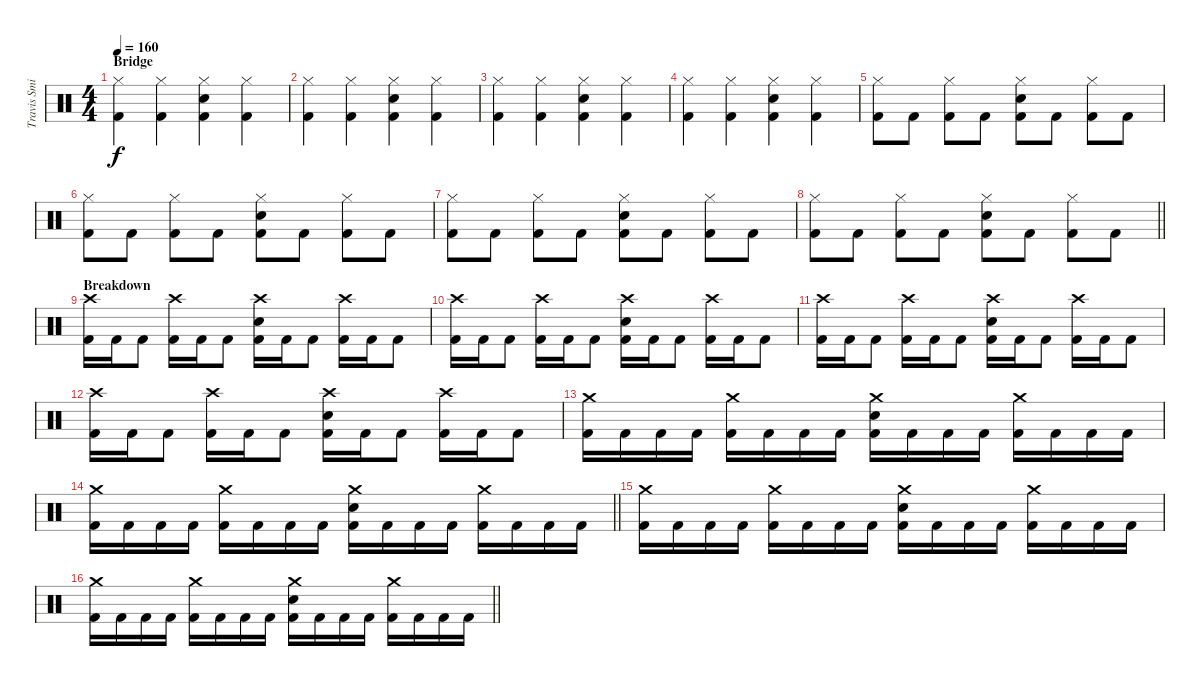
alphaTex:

\track ("Travis Smith" "Travis Smi") {instrument percussion}
\staff {score}
\articulation defaults
\ts (4 4)
\section ("" "Bridge")
\tempo 160
\clef neutral
\ks c
("Hi-Hat (closed)" "Kick (hit) 2").4{dy f volume 10} ("Hi-Hat (closed)" "Kick (hit) 2").4 ("Hi-Hat (closed)" "Electric Snare (hit)" "Kick (hit) 2").4 ("Hi-Hat (closed)" "Kick (hit) 2").4 |
("Hi-Hat (closed)" "Kick (hit) 2").4 ("Hi-Hat (closed)" "Kick (hit) 2").4 ("Hi-Hat (closed)" "Electric Snare (hit)" "Kick (hit) 2").4 ("Hi-Hat (closed)" "Kick (hit) 2").4 |
("Hi-Hat (closed)" "Kick (hit) 2").4 ("Hi-Hat (closed)" "Kick (hit) 2").4 ("Hi-Hat (closed)" "Electric Snare (hit)" "Kick (hit) 2").4 ("Hi-Hat (closed)" "Kick (hit) 2").4 |
("Hi-Hat (closed)" "Kick (hit) 2").4 ("Hi-Hat (closed)" "Kick (hit) 2").4 ("Hi-Hat (closed)" "Electric Snare (hit)" "Kick (hit) 2").4 ("Hi-Hat (closed)" "Kick (hit) 2").4 |
("Hi-Hat (closed)" "Kick (hit) 2").8 "Kick (hit) 2".8 ("Hi-Hat (closed)" "Kick (hit) 2").8 "Kick (hit) 2".8 ("Hi-Hat (closed)" "Electric Snare (hit)" "Kick (hit) 2").8 "Kick (hit) 2".8 ("Hi-Hat (closed)" "Kick (hit) 2").8 "Kick (hit) 2".8 |
("Hi-Hat (closed)" "Kick (hit) 2").8 "Kick (hit) 2".8 ("Hi-Hat (closed)" "Kick (hit) 2").8 "Kick (hit) 2".8 ("Hi-Hat (closed)" "Electric Snare (hit)" "Kick (hit) 2").8 "Kick (hit) 2".8 ("Hi-Hat (closed)" "Kick (hit) 2").8 "Kick (hit) 2".8 |
("Hi-Hat (closed)" "Kick (hit) 2").8 "Kick (hit) 2".8 ("Hi-Hat (closed)" "Kick (hit) 2").8 "Kick (hit) 2".8 ("Hi-Hat (closed)" "Electric Snare (hit)" "Kick (hit) 2").8 "Kick (hit) 2".8 ("Hi-Hat (closed)" "Kick (hit) 2").8 "Kick (hit) 2".8 |
\barLineRight lightlight
("Hi-Hat (closed)" "Kick (hit) 2").8 "Kick (hit) 2".8 ("Hi-Hat (closed)" "Kick (hit) 2").8 "Kick (hit) 2".8 ("Hi-Hat (closed)" "Electric Snare (hit)" "Kick (hit) 2").8 "Kick (hit) 2".8 ("Hi-Hat (closed)" "Kick (hit) 2").8 "Kick (hit) 2".8 |
\section ("" "Breakdown")
("Crash high (hit)" "Kick (hit) 2").16{volume 16} "Kick (hit) 2".16 "Kick (hit) 2".8 ("Crash high (hit)" "Kick (hit) 2").16 "Kick (hit) 2".16 "Kick (hit) 2".8 ("Crash high (hit)" "Electric Snare (hit)" "Kick (hit) 2").16 "Kick (hit) 2".16 "Kick (hit) 2".8 ("Crash high (hit)" "Kick (hit) 2").16 "Kick (hit) 2".16 "Kick (hit) 2".8 |
("Crash high (hit)" "Kick (hit) 2").16 "Kick (hit) 2".16 "Kick (hit) 2".8 ("Crash high (hit)" "Kick (hit) 2").16 "Kick (hit) 2".16 "Kick (hit) 2".8 ("Crash high (hit)" "Electric Snare (hit)" "Kick (hit) 2").16 "Kick (hit) 2".16 "Kick (hit) 2".8 ("Crash high (hit)" "Kick (hit) 2").16 "Kick (hit) 2".16 "Kick (hit) 2".8 |
("Crash high (hit)" "Kick (hit) 2").16 "Kick (hit) 2".16 "Kick (hit) 2".8 ("Crash high (hit)" "Kick (hit) 2").16 "Kick (hit) 2".16 "Kick (hit) 2".8 ("Crash high (hit)" "Electric Snare (hit)" "Kick (hit) 2").16 "Kick (hit) 2".16 "Kick (hit) 2".8 ("Crash high (hit)" "Kick (hit) 2").16 "Kick (hit) 2".16 "Kick (hit) 2".8 |
("Crash high (hit)" "Kick (hit) 2").16 "Kick (hit) 2".16 "Kick (hit) 2".8 ("Crash high (hit)" "Kick (hit) 2").16 "Kick (hit) 2".16 "Kick (hit) 2".8 ("Crash high (hit)" "Electric Snare (hit)" "Kick (hit) 2").16 "Kick (hit) 2".16 "Kick (hit) 2".8 ("Crash high (hit)" "Kick (hit) 2").16 "Kick (hit) 2".16 "Kick (hit) 2".8 |
("Crash medium (hit)" "Kick (hit) 2").16 "Kick (hit) 2".16 "Kick (hit) 2".16 "Kick (hit) 2".16 ("Crash medium (hit)" "Kick (hit) 2").16 "Kick (hit) 2".16 "Kick (hit) 2".16 "Kick (hit) 2".16 ("Crash medium (hit)" "Electric Snare (hit)" "Kick (hit) 2").16 "Kick (hit) 2".16 "Kick (hit) 2".16 "Kick (hit) 2".16 ("Crash medium (hit)" "Kick (hit) 2").16 "Kick (hit) 2".16 "Kick (hit) 2".16 "Kick (hit) 2".16 |
\barLineRight lightlight
("Crash medium (hit)" "Kick (hit) 2").16 "Kick (hit) 2".16 "Kick (hit) 2".16 "Kick (hit) 2".16 ("Crash medium (hit)" "Kick (hit) 2").16 "Kick (hit) 2".16 "Kick (hit) 2".16 "Kick (hit) 2".16 ("Crash medium (hit)" "Electric Snare (hit)" "Kick (hit) 2").16 "Kick (hit) 2".16 "Kick (hit) 2".16 "Kick (hit) 2".16 ("Crash medium (hit)" "Kick (hit) 2").16 "Kick (hit) 2".16 "Kick (hit) 2".16 "Kick (hit) 2".16 |
("Crash medium (hit)" "Kick (hit) 2").16 "Kick (hit) 2".16 "Kick (hit) 2".16 "Kick (hit) 2".16 ("Crash medium (hit)" "Kick (hit) 2").16 "Kick (hit) 2".16 "Kick (hit) 2".16 "Kick (hit) 2".16 ("Crash medium (hit)" "Electric Snare (hit)" "Kick (hit) 2").16 "Kick (hit) 2".16 "Kick (hit) 2".16 "Kick (hit) 2".16 ("Crash medium (hit)" "Kick (hit) 2").16 "Kick (hit) 2".16 "Kick (hit) 2".16 "Kick (hit) 2".16 |
\barLineRight lightlight
("Crash medium (hit)" "Kick (hit) 2").16 "Kick (hit) 2".16 "Kick (hit) 2".16 "Kick (hit) 2".16 ("Crash medium (hit)" "Kick (hit) 2").16 "Kick (hit) 2".16 "Kick (hit) 2".16 "Kick (hit) 2".16 ("Crash medium (hit)" "Electric Snare (hit)" "Kick (hit) 2").16 "Kick (hit) 2".16 "Kick (hit) 2".16 "Kick (hit) 2".16 ("Crash medium (hit)" "Kick (hit) 2").16 "Kick (hit) 2".16 "Kick (hit) 2".16 "Kick (hit) 2".16
